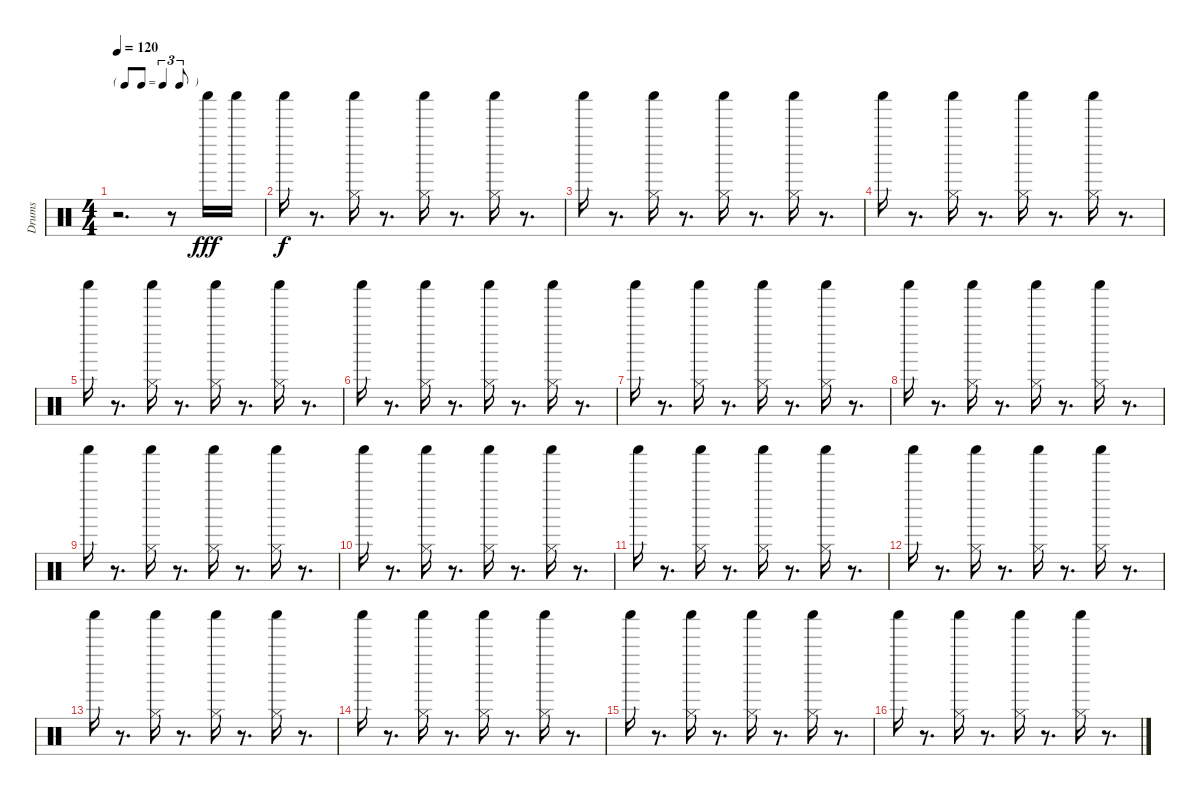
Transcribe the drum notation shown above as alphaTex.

\track ("Drums  " "Drums  ") {instrument percussion}
\staff {score}
\articulation defaults
\ts (4 4)
\tf triplet8th
\tempo 120
\clef neutral
\ks c
r.2{d dy f} r.8 "Shaker (hit)".16{dy fff} "Shaker (hit)".16 |
"Shaker (hit)".16{dy f} r.8{d} ("Shaker (hit)" "Hi-Hat (closed)").16 r.8{d} ("Shaker (hit)" "Hi-Hat (closed)").16 r.8{d} ("Shaker (hit)" "Hi-Hat (closed)").16 r.8{d} |
"Shaker (hit)".16 r.8{d} ("Shaker (hit)" "Hi-Hat (closed)").16 r.8{d} ("Shaker (hit)" "Hi-Hat (closed)").16 r.8{d} ("Shaker (hit)" "Hi-Hat (closed)").16 r.8{d} |
"Shaker (hit)".16 r.8{d} ("Shaker (hit)" "Hi-Hat (closed)").16 r.8{d} ("Shaker (hit)" "Hi-Hat (closed)").16 r.8{d} ("Shaker (hit)" "Hi-Hat (closed)").16 r.8{d} |
"Shaker (hit)".16 r.8{d} ("Shaker (hit)" "Hi-Hat (closed)").16 r.8{d} ("Shaker (hit)" "Hi-Hat (closed)").16 r.8{d} ("Shaker (hit)" "Hi-Hat (closed)").16 r.8{d} |
"Shaker (hit)".16 r.8{d} ("Shaker (hit)" "Hi-Hat (closed)").16 r.8{d} ("Shaker (hit)" "Hi-Hat (closed)").16 r.8{d} ("Shaker (hit)" "Hi-Hat (closed)").16 r.8{d} |
"Shaker (hit)".16 r.8{d} ("Shaker (hit)" "Hi-Hat (closed)").16 r.8{d} ("Shaker (hit)" "Hi-Hat (closed)").16 r.8{d} ("Shaker (hit)" "Hi-Hat (closed)").16 r.8{d} |
"Shaker (hit)".16 r.8{d} ("Shaker (hit)" "Hi-Hat (closed)").16 r.8{d} ("Shaker (hit)" "Hi-Hat (closed)").16 r.8{d} ("Shaker (hit)" "Hi-Hat (closed)").16 r.8{d} |
"Shaker (hit)".16 r.8{d} ("Shaker (hit)" "Hi-Hat (closed)").16 r.8{d} ("Shaker (hit)" "Hi-Hat (closed)").16 r.8{d} ("Shaker (hit)" "Hi-Hat (closed)").16 r.8{d} |
"Shaker (hit)".16 r.8{d} ("Shaker (hit)" "Hi-Hat (closed)").16 r.8{d} ("Shaker (hit)" "Hi-Hat (closed)").16 r.8{d} ("Shaker (hit)" "Hi-Hat (closed)").16 r.8{d} |
"Shaker (hit)".16 r.8{d} ("Shaker (hit)" "Hi-Hat (closed)").16 r.8{d} ("Shaker (hit)" "Hi-Hat (closed)").16 r.8{d} ("Shaker (hit)" "Hi-Hat (closed)").16 r.8{d} |
"Shaker (hit)".16 r.8{d} ("Shaker (hit)" "Hi-Hat (closed)").16 r.8{d} ("Shaker (hit)" "Hi-Hat (closed)").16 r.8{d} ("Shaker (hit)" "Hi-Hat (closed)").16 r.8{d} |
"Shaker (hit)".16 r.8{d} ("Shaker (hit)" "Hi-Hat (closed)").16 r.8{d} ("Shaker (hit)" "Hi-Hat (closed)").16 r.8{d} ("Shaker (hit)" "Hi-Hat (closed)").16 r.8{d} |
"Shaker (hit)".16 r.8{d} ("Shaker (hit)" "Hi-Hat (closed)").16 r.8{d} ("Shaker (hit)" "Hi-Hat (closed)").16 r.8{d} ("Shaker (hit)" "Hi-Hat (closed)").16 r.8{d} |
"Shaker (hit)".16 r.8{d} ("Shaker (hit)" "Hi-Hat (closed)").16 r.8{d} ("Shaker (hit)" "Hi-Hat (closed)").16 r.8{d} ("Shaker (hit)" "Hi-Hat (closed)").16 r.8{d} |
"Shaker (hit)".16 r.8{d} ("Shaker (hit)" "Hi-Hat (closed)").16 r.8{d} ("Shaker (hit)" "Hi-Hat (closed)").16 r.8{d} ("Shaker (hit)" "Hi-Hat (closed)").16 r.8{d}
